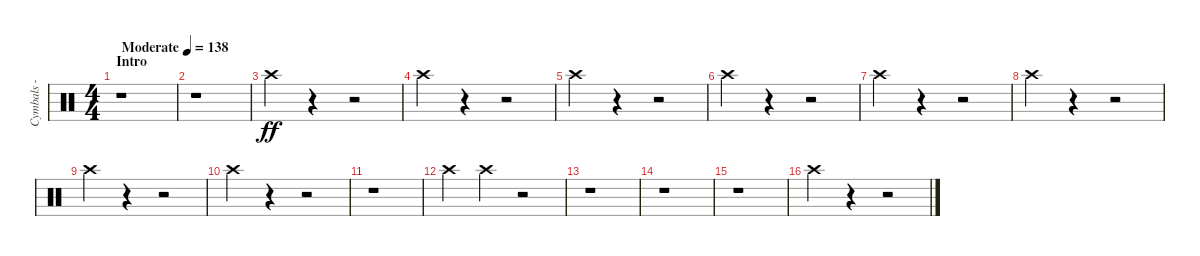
\track ("Cymbals - crash" "Cymbals - ") {instrument percussion}
\staff {score}
\articulation defaults
\ts (4 4)
\section ("" "Intro")
\tempo (138 "Moderate")
\clef neutral
\ks c
r.1{dy ff volume 6} |
r.1 |
"Crash high (hit)".4 r.4 r.2 |
"Crash high (hit)".4 r.4 r.2 |
"Crash high (hit)".4 r.4 r.2 |
"Crash high (hit)".4 r.4 r.2 |
"Crash high (hit)".4 r.4 r.2 |
"Crash high (hit)".4 r.4 r.2 |
"Crash high (hit)".4 r.4 r.2 |
"Crash high (hit)".4 r.4 r.2 |
r.1 |
"Crash high (hit)".4 "Crash high (hit)".4 r.2 |
r.1 |
r.1 |
r.1 |
"Crash high (hit)".4 r.4 r.2
